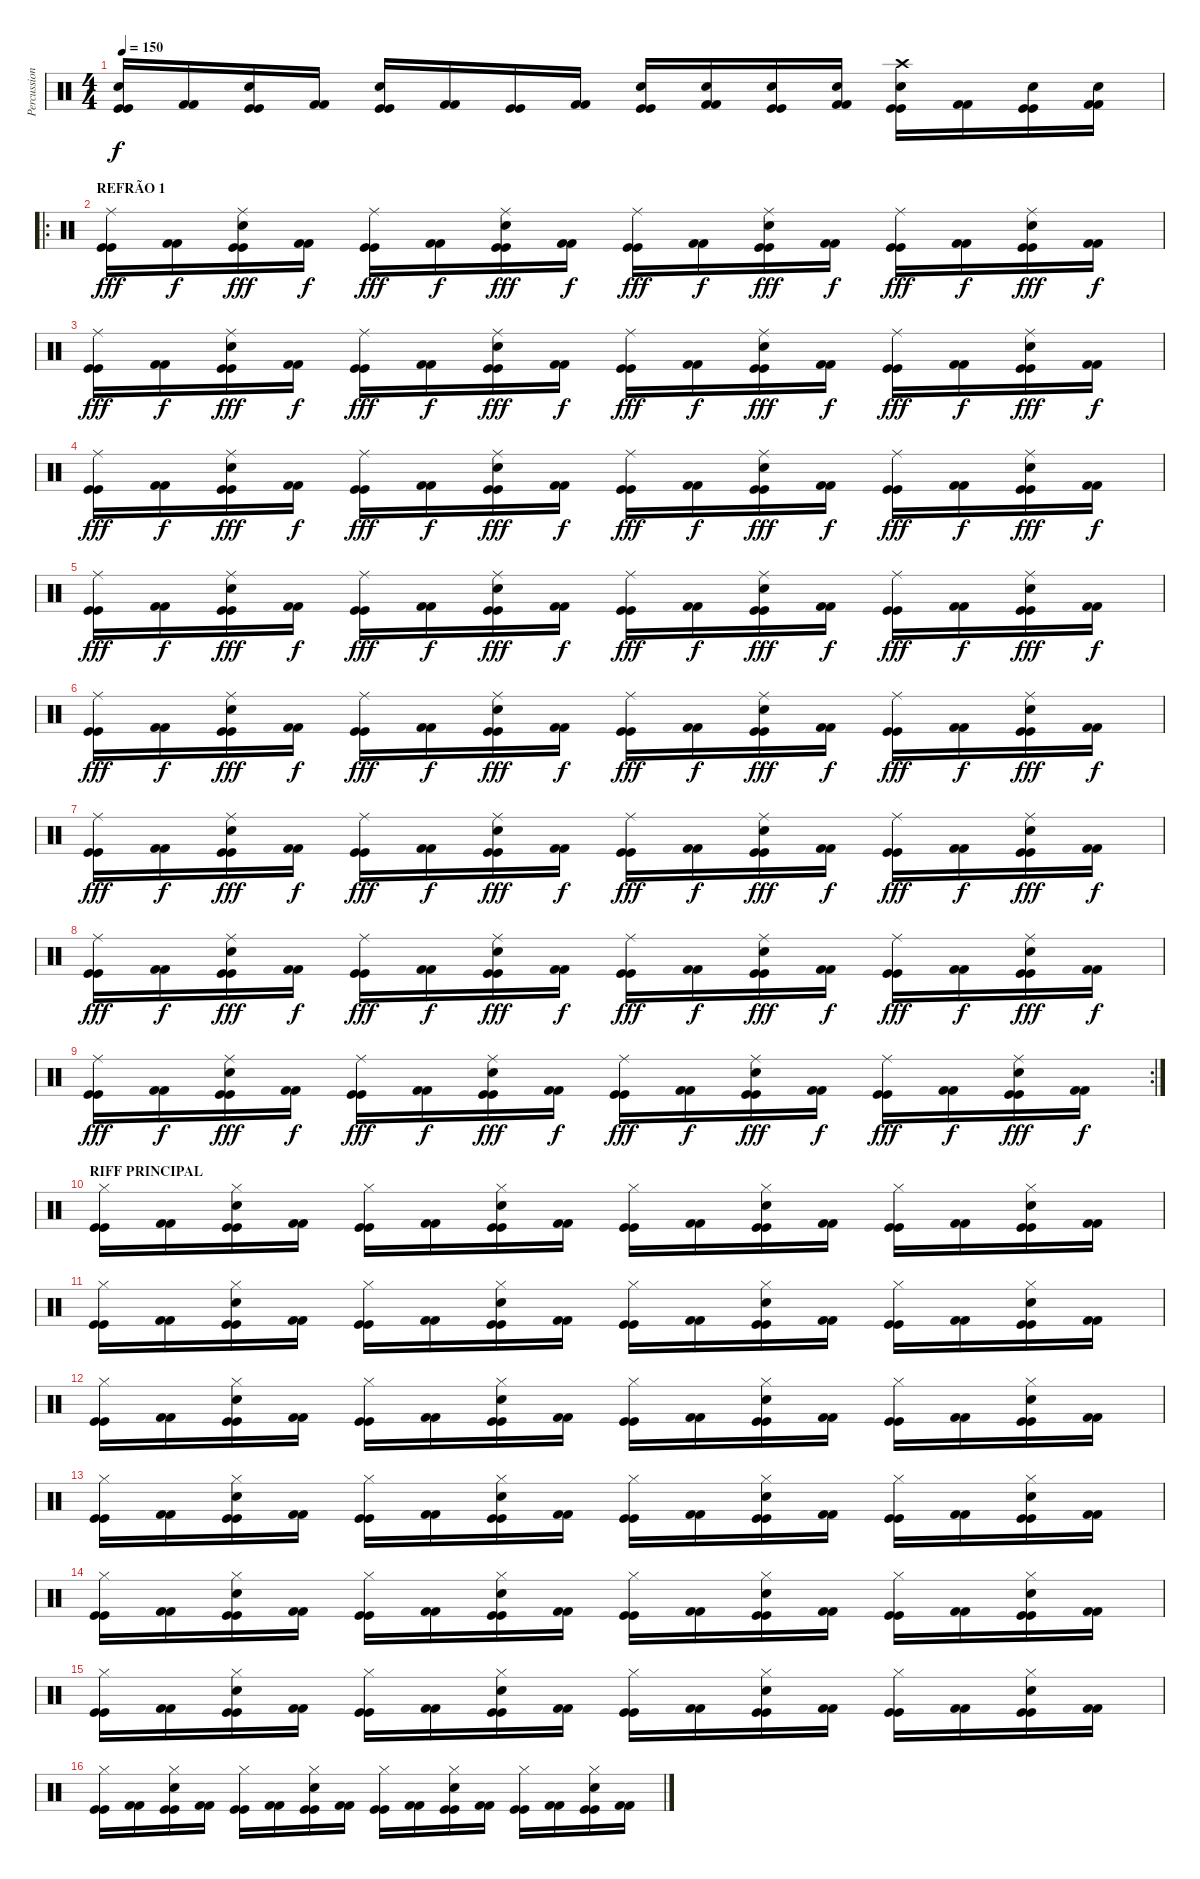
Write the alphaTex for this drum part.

\track ("Percussion" "Percussion") {instrument percussion}
\staff {score}
\articulation defaults
\ts (4 4)
\tempo 150
\clef neutral
\ks c
("Electric Snare (hit)" "Kick (hit)" "Kick (hit)").16{dy f} ("Kick (hit) 2" "Kick (hit) 2").16 ("Electric Snare (hit)" "Kick (hit)" "Kick (hit)").16 ("Kick (hit) 2" "Kick (hit) 2").16 ("Electric Snare (hit)" "Kick (hit)" "Kick (hit)").16 ("Kick (hit) 2" "Kick (hit) 2").16 ("Kick (hit)" "Kick (hit)").16 ("Kick (hit) 2" "Kick (hit) 2").16 ("Electric Snare (hit)" "Kick (hit)" "Kick (hit)").16 ("Electric Snare (hit)" "Kick (hit) 2" "Kick (hit) 2").16 ("Electric Snare (hit)" "Kick (hit)" "Kick (hit)").16 ("Electric Snare (hit)" "Kick (hit) 2" "Kick (hit) 2").16 ("Crash high (hit)" "Electric Snare (hit)" "Kick (hit)" "Kick (hit)").16 ("Kick (hit) 2" "Kick (hit) 2").16 ("Electric Snare (hit)" "Kick (hit)" "Kick (hit)").16 ("Electric Snare (hit)" "Kick (hit) 2" "Kick (hit) 2").16 |
\ro
\section ("" "REFRÃO 1")
("Ride (middle)" "Kick (hit)" "Kick (hit)").16{dy fff} ("Kick (hit) 2" "Kick (hit) 2").16{dy f} ("Ride (middle)" "Electric Snare (hit)" "Kick (hit)" "Kick (hit)").16{dy fff} ("Kick (hit) 2" "Kick (hit) 2").16{dy f} ("Ride (middle)" "Kick (hit)" "Kick (hit)").16{dy fff} ("Kick (hit) 2" "Kick (hit) 2").16{dy f} ("Ride (middle)" "Electric Snare (hit)" "Kick (hit)" "Kick (hit)").16{dy fff} ("Kick (hit) 2" "Kick (hit) 2").16{dy f} ("Ride (middle)" "Kick (hit)" "Kick (hit)").16{dy fff} ("Kick (hit) 2" "Kick (hit) 2").16{dy f} ("Ride (middle)" "Electric Snare (hit)" "Kick (hit)" "Kick (hit)").16{dy fff} ("Kick (hit) 2" "Kick (hit) 2").16{dy f} ("Ride (middle)" "Kick (hit)" "Kick (hit)").16{dy fff} ("Kick (hit) 2" "Kick (hit) 2").16{dy f} ("Ride (middle)" "Electric Snare (hit)" "Kick (hit)" "Kick (hit)").16{dy fff} ("Kick (hit) 2" "Kick (hit) 2").16{dy f} |
("Ride (middle)" "Kick (hit)" "Kick (hit)").16{dy fff} ("Kick (hit) 2" "Kick (hit) 2").16{dy f} ("Ride (middle)" "Electric Snare (hit)" "Kick (hit)" "Kick (hit)").16{dy fff} ("Kick (hit) 2" "Kick (hit) 2").16{dy f} ("Ride (middle)" "Kick (hit)" "Kick (hit)").16{dy fff} ("Kick (hit) 2" "Kick (hit) 2").16{dy f} ("Ride (middle)" "Electric Snare (hit)" "Kick (hit)" "Kick (hit)").16{dy fff} ("Kick (hit) 2" "Kick (hit) 2").16{dy f} ("Ride (middle)" "Kick (hit)" "Kick (hit)").16{dy fff} ("Kick (hit) 2" "Kick (hit) 2").16{dy f} ("Ride (middle)" "Electric Snare (hit)" "Kick (hit)" "Kick (hit)").16{dy fff} ("Kick (hit) 2" "Kick (hit) 2").16{dy f} ("Ride (middle)" "Kick (hit)" "Kick (hit)").16{dy fff} ("Kick (hit) 2" "Kick (hit) 2").16{dy f} ("Ride (middle)" "Electric Snare (hit)" "Kick (hit)" "Kick (hit)").16{dy fff} ("Kick (hit) 2" "Kick (hit) 2").16{dy f} |
("Ride (middle)" "Kick (hit)" "Kick (hit)").16{dy fff} ("Kick (hit) 2" "Kick (hit) 2").16{dy f} ("Ride (middle)" "Electric Snare (hit)" "Kick (hit)" "Kick (hit)").16{dy fff} ("Kick (hit) 2" "Kick (hit) 2").16{dy f} ("Ride (middle)" "Kick (hit)" "Kick (hit)").16{dy fff} ("Kick (hit) 2" "Kick (hit) 2").16{dy f} ("Ride (middle)" "Electric Snare (hit)" "Kick (hit)" "Kick (hit)").16{dy fff} ("Kick (hit) 2" "Kick (hit) 2").16{dy f} ("Ride (middle)" "Kick (hit)" "Kick (hit)").16{dy fff} ("Kick (hit) 2" "Kick (hit) 2").16{dy f} ("Ride (middle)" "Electric Snare (hit)" "Kick (hit)" "Kick (hit)").16{dy fff} ("Kick (hit) 2" "Kick (hit) 2").16{dy f} ("Ride (middle)" "Kick (hit)" "Kick (hit)").16{dy fff} ("Kick (hit) 2" "Kick (hit) 2").16{dy f} ("Ride (middle)" "Electric Snare (hit)" "Kick (hit)" "Kick (hit)").16{dy fff} ("Kick (hit) 2" "Kick (hit) 2").16{dy f} |
("Ride (middle)" "Kick (hit)" "Kick (hit)").16{dy fff} ("Kick (hit) 2" "Kick (hit) 2").16{dy f} ("Ride (middle)" "Electric Snare (hit)" "Kick (hit)" "Kick (hit)").16{dy fff} ("Kick (hit) 2" "Kick (hit) 2").16{dy f} ("Ride (middle)" "Kick (hit)" "Kick (hit)").16{dy fff} ("Kick (hit) 2" "Kick (hit) 2").16{dy f} ("Ride (middle)" "Electric Snare (hit)" "Kick (hit)" "Kick (hit)").16{dy fff} ("Kick (hit) 2" "Kick (hit) 2").16{dy f} ("Ride (middle)" "Kick (hit)" "Kick (hit)").16{dy fff} ("Kick (hit) 2" "Kick (hit) 2").16{dy f} ("Ride (middle)" "Electric Snare (hit)" "Kick (hit)" "Kick (hit)").16{dy fff} ("Kick (hit) 2" "Kick (hit) 2").16{dy f} ("Ride (middle)" "Kick (hit)" "Kick (hit)").16{dy fff} ("Kick (hit) 2" "Kick (hit) 2").16{dy f} ("Ride (middle)" "Electric Snare (hit)" "Kick (hit)" "Kick (hit)").16{dy fff} ("Kick (hit) 2" "Kick (hit) 2").16{dy f} |
("Ride (middle)" "Kick (hit)" "Kick (hit)").16{dy fff} ("Kick (hit) 2" "Kick (hit) 2").16{dy f} ("Ride (middle)" "Electric Snare (hit)" "Kick (hit)" "Kick (hit)").16{dy fff} ("Kick (hit) 2" "Kick (hit) 2").16{dy f} ("Ride (middle)" "Kick (hit)" "Kick (hit)").16{dy fff} ("Kick (hit) 2" "Kick (hit) 2").16{dy f} ("Ride (middle)" "Electric Snare (hit)" "Kick (hit)" "Kick (hit)").16{dy fff} ("Kick (hit) 2" "Kick (hit) 2").16{dy f} ("Ride (middle)" "Kick (hit)" "Kick (hit)").16{dy fff} ("Kick (hit) 2" "Kick (hit) 2").16{dy f} ("Ride (middle)" "Electric Snare (hit)" "Kick (hit)" "Kick (hit)").16{dy fff} ("Kick (hit) 2" "Kick (hit) 2").16{dy f} ("Ride (middle)" "Kick (hit)" "Kick (hit)").16{dy fff} ("Kick (hit) 2" "Kick (hit) 2").16{dy f} ("Ride (middle)" "Electric Snare (hit)" "Kick (hit)" "Kick (hit)").16{dy fff} ("Kick (hit) 2" "Kick (hit) 2").16{dy f} |
("Ride (middle)" "Kick (hit)" "Kick (hit)").16{dy fff} ("Kick (hit) 2" "Kick (hit) 2").16{dy f} ("Ride (middle)" "Electric Snare (hit)" "Kick (hit)" "Kick (hit)").16{dy fff} ("Kick (hit) 2" "Kick (hit) 2").16{dy f} ("Ride (middle)" "Kick (hit)" "Kick (hit)").16{dy fff} ("Kick (hit) 2" "Kick (hit) 2").16{dy f} ("Ride (middle)" "Electric Snare (hit)" "Kick (hit)" "Kick (hit)").16{dy fff} ("Kick (hit) 2" "Kick (hit) 2").16{dy f} ("Ride (middle)" "Kick (hit)" "Kick (hit)").16{dy fff} ("Kick (hit) 2" "Kick (hit) 2").16{dy f} ("Ride (middle)" "Electric Snare (hit)" "Kick (hit)" "Kick (hit)").16{dy fff} ("Kick (hit) 2" "Kick (hit) 2").16{dy f} ("Ride (middle)" "Kick (hit)" "Kick (hit)").16{dy fff} ("Kick (hit) 2" "Kick (hit) 2").16{dy f} ("Ride (middle)" "Electric Snare (hit)" "Kick (hit)" "Kick (hit)").16{dy fff} ("Kick (hit) 2" "Kick (hit) 2").16{dy f} |
("Ride (middle)" "Kick (hit)" "Kick (hit)").16{dy fff} ("Kick (hit) 2" "Kick (hit) 2").16{dy f} ("Ride (middle)" "Electric Snare (hit)" "Kick (hit)" "Kick (hit)").16{dy fff} ("Kick (hit) 2" "Kick (hit) 2").16{dy f} ("Ride (middle)" "Kick (hit)" "Kick (hit)").16{dy fff} ("Kick (hit) 2" "Kick (hit) 2").16{dy f} ("Ride (middle)" "Electric Snare (hit)" "Kick (hit)" "Kick (hit)").16{dy fff} ("Kick (hit) 2" "Kick (hit) 2").16{dy f} ("Ride (middle)" "Kick (hit)" "Kick (hit)").16{dy fff} ("Kick (hit) 2" "Kick (hit) 2").16{dy f} ("Ride (middle)" "Electric Snare (hit)" "Kick (hit)" "Kick (hit)").16{dy fff} ("Kick (hit) 2" "Kick (hit) 2").16{dy f} ("Ride (middle)" "Kick (hit)" "Kick (hit)").16{dy fff} ("Kick (hit) 2" "Kick (hit) 2").16{dy f} ("Ride (middle)" "Electric Snare (hit)" "Kick (hit)" "Kick (hit)").16{dy fff} ("Kick (hit) 2" "Kick (hit) 2").16{dy f} |
\rc 2
("Ride (middle)" "Kick (hit)" "Kick (hit)").16{dy fff} ("Kick (hit) 2" "Kick (hit) 2").16{dy f} ("Ride (middle)" "Electric Snare (hit)" "Kick (hit)" "Kick (hit)").16{dy fff} ("Kick (hit) 2" "Kick (hit) 2").16{dy f} ("Ride (middle)" "Kick (hit)" "Kick (hit)").16{dy fff} ("Kick (hit) 2" "Kick (hit) 2").16{dy f} ("Ride (middle)" "Electric Snare (hit)" "Kick (hit)" "Kick (hit)").16{dy fff} ("Kick (hit) 2" "Kick (hit) 2").16{dy f} ("Ride (middle)" "Kick (hit)" "Kick (hit)").16{dy fff} ("Kick (hit) 2" "Kick (hit) 2").16{dy f} ("Ride (middle)" "Electric Snare (hit)" "Kick (hit)" "Kick (hit)").16{dy fff} ("Kick (hit) 2" "Kick (hit) 2").16{dy f} ("Ride (middle)" "Kick (hit)" "Kick (hit)").16{dy fff} ("Kick (hit) 2" "Kick (hit) 2").16{dy f} ("Ride (middle)" "Electric Snare (hit)" "Kick (hit)" "Kick (hit)").16{dy fff} ("Kick (hit) 2" "Kick (hit) 2").16{dy f} |
\section ("" "RIFF PRINCIPAL")
("Hi-Hat (closed)" "Kick (hit)" "Kick (hit)").16 ("Kick (hit) 2" "Kick (hit) 2").16 ("Hi-Hat (closed)" "Electric Snare (hit)" "Kick (hit)" "Kick (hit)").16 ("Kick (hit) 2" "Kick (hit) 2").16 ("Hi-Hat (closed)" "Kick (hit)" "Kick (hit)").16 ("Kick (hit) 2" "Kick (hit) 2").16 ("Hi-Hat (closed)" "Electric Snare (hit)" "Kick (hit)" "Kick (hit)").16 ("Kick (hit) 2" "Kick (hit) 2").16 ("Hi-Hat (closed)" "Kick (hit)" "Kick (hit)").16 ("Kick (hit) 2" "Kick (hit) 2").16 ("Hi-Hat (closed)" "Electric Snare (hit)" "Kick (hit)" "Kick (hit)").16 ("Kick (hit) 2" "Kick (hit) 2").16 ("Hi-Hat (closed)" "Kick (hit)" "Kick (hit)").16 ("Kick (hit) 2" "Kick (hit) 2").16 ("Hi-Hat (closed)" "Electric Snare (hit)" "Kick (hit)" "Kick (hit)").16 ("Kick (hit) 2" "Kick (hit) 2").16 |
("Hi-Hat (closed)" "Kick (hit)" "Kick (hit)").16 ("Kick (hit) 2" "Kick (hit) 2").16 ("Hi-Hat (closed)" "Electric Snare (hit)" "Kick (hit)" "Kick (hit)").16 ("Kick (hit) 2" "Kick (hit) 2").16 ("Hi-Hat (closed)" "Kick (hit)" "Kick (hit)").16 ("Kick (hit) 2" "Kick (hit) 2").16 ("Hi-Hat (closed)" "Electric Snare (hit)" "Kick (hit)" "Kick (hit)").16 ("Kick (hit) 2" "Kick (hit) 2").16 ("Hi-Hat (closed)" "Kick (hit)" "Kick (hit)").16 ("Kick (hit) 2" "Kick (hit) 2").16 ("Hi-Hat (closed)" "Electric Snare (hit)" "Kick (hit)" "Kick (hit)").16 ("Kick (hit) 2" "Kick (hit) 2").16 ("Hi-Hat (closed)" "Kick (hit)" "Kick (hit)").16 ("Kick (hit) 2" "Kick (hit) 2").16 ("Hi-Hat (closed)" "Electric Snare (hit)" "Kick (hit)" "Kick (hit)").16 ("Kick (hit) 2" "Kick (hit) 2").16 |
("Hi-Hat (closed)" "Kick (hit)" "Kick (hit)").16 ("Kick (hit) 2" "Kick (hit) 2").16 ("Hi-Hat (closed)" "Electric Snare (hit)" "Kick (hit)" "Kick (hit)").16 ("Kick (hit) 2" "Kick (hit) 2").16 ("Hi-Hat (closed)" "Kick (hit)" "Kick (hit)").16 ("Kick (hit) 2" "Kick (hit) 2").16 ("Hi-Hat (closed)" "Electric Snare (hit)" "Kick (hit)" "Kick (hit)").16 ("Kick (hit) 2" "Kick (hit) 2").16 ("Hi-Hat (closed)" "Kick (hit)" "Kick (hit)").16 ("Kick (hit) 2" "Kick (hit) 2").16 ("Hi-Hat (closed)" "Electric Snare (hit)" "Kick (hit)" "Kick (hit)").16 ("Kick (hit) 2" "Kick (hit) 2").16 ("Hi-Hat (closed)" "Kick (hit)" "Kick (hit)").16 ("Kick (hit) 2" "Kick (hit) 2").16 ("Hi-Hat (closed)" "Electric Snare (hit)" "Kick (hit)" "Kick (hit)").16 ("Kick (hit) 2" "Kick (hit) 2").16 |
("Hi-Hat (closed)" "Kick (hit)" "Kick (hit)").16 ("Kick (hit) 2" "Kick (hit) 2").16 ("Hi-Hat (closed)" "Electric Snare (hit)" "Kick (hit)" "Kick (hit)").16 ("Kick (hit) 2" "Kick (hit) 2").16 ("Hi-Hat (closed)" "Kick (hit)" "Kick (hit)").16 ("Kick (hit) 2" "Kick (hit) 2").16 ("Hi-Hat (closed)" "Electric Snare (hit)" "Kick (hit)" "Kick (hit)").16 ("Kick (hit) 2" "Kick (hit) 2").16 ("Hi-Hat (closed)" "Kick (hit)" "Kick (hit)").16 ("Kick (hit) 2" "Kick (hit) 2").16 ("Hi-Hat (closed)" "Electric Snare (hit)" "Kick (hit)" "Kick (hit)").16 ("Kick (hit) 2" "Kick (hit) 2").16 ("Hi-Hat (closed)" "Kick (hit)" "Kick (hit)").16 ("Kick (hit) 2" "Kick (hit) 2").16 ("Hi-Hat (closed)" "Electric Snare (hit)" "Kick (hit)" "Kick (hit)").16 ("Kick (hit) 2" "Kick (hit) 2").16 |
("Hi-Hat (closed)" "Kick (hit)" "Kick (hit)").16 ("Kick (hit) 2" "Kick (hit) 2").16 ("Hi-Hat (closed)" "Electric Snare (hit)" "Kick (hit)" "Kick (hit)").16 ("Kick (hit) 2" "Kick (hit) 2").16 ("Hi-Hat (closed)" "Kick (hit)" "Kick (hit)").16 ("Kick (hit) 2" "Kick (hit) 2").16 ("Hi-Hat (closed)" "Electric Snare (hit)" "Kick (hit)" "Kick (hit)").16 ("Kick (hit) 2" "Kick (hit) 2").16 ("Hi-Hat (closed)" "Kick (hit)" "Kick (hit)").16 ("Kick (hit) 2" "Kick (hit) 2").16 ("Hi-Hat (closed)" "Electric Snare (hit)" "Kick (hit)" "Kick (hit)").16 ("Kick (hit) 2" "Kick (hit) 2").16 ("Hi-Hat (closed)" "Kick (hit)" "Kick (hit)").16 ("Kick (hit) 2" "Kick (hit) 2").16 ("Hi-Hat (closed)" "Electric Snare (hit)" "Kick (hit)" "Kick (hit)").16 ("Kick (hit) 2" "Kick (hit) 2").16 |
("Hi-Hat (closed)" "Kick (hit)" "Kick (hit)").16 ("Kick (hit) 2" "Kick (hit) 2").16 ("Hi-Hat (closed)" "Electric Snare (hit)" "Kick (hit)" "Kick (hit)").16 ("Kick (hit) 2" "Kick (hit) 2").16 ("Hi-Hat (closed)" "Kick (hit)" "Kick (hit)").16 ("Kick (hit) 2" "Kick (hit) 2").16 ("Hi-Hat (closed)" "Electric Snare (hit)" "Kick (hit)" "Kick (hit)").16 ("Kick (hit) 2" "Kick (hit) 2").16 ("Hi-Hat (closed)" "Kick (hit)" "Kick (hit)").16 ("Kick (hit) 2" "Kick (hit) 2").16 ("Hi-Hat (closed)" "Electric Snare (hit)" "Kick (hit)" "Kick (hit)").16 ("Kick (hit) 2" "Kick (hit) 2").16 ("Hi-Hat (closed)" "Kick (hit)" "Kick (hit)").16 ("Kick (hit) 2" "Kick (hit) 2").16 ("Hi-Hat (closed)" "Electric Snare (hit)" "Kick (hit)" "Kick (hit)").16 ("Kick (hit) 2" "Kick (hit) 2").16 |
("Hi-Hat (closed)" "Kick (hit)" "Kick (hit)").16 ("Kick (hit) 2" "Kick (hit) 2").16 ("Hi-Hat (closed)" "Electric Snare (hit)" "Kick (hit)" "Kick (hit)").16 ("Kick (hit) 2" "Kick (hit) 2").16 ("Hi-Hat (closed)" "Kick (hit)" "Kick (hit)").16 ("Kick (hit) 2" "Kick (hit) 2").16 ("Hi-Hat (closed)" "Electric Snare (hit)" "Kick (hit)" "Kick (hit)").16 ("Kick (hit) 2" "Kick (hit) 2").16 ("Hi-Hat (closed)" "Kick (hit)" "Kick (hit)").16 ("Kick (hit) 2" "Kick (hit) 2").16 ("Hi-Hat (closed)" "Electric Snare (hit)" "Kick (hit)" "Kick (hit)").16 ("Kick (hit) 2" "Kick (hit) 2").16 ("Hi-Hat (closed)" "Kick (hit)" "Kick (hit)").16 ("Kick (hit) 2" "Kick (hit) 2").16 ("Hi-Hat (closed)" "Electric Snare (hit)" "Kick (hit)" "Kick (hit)").16 ("Kick (hit) 2" "Kick (hit) 2").16
